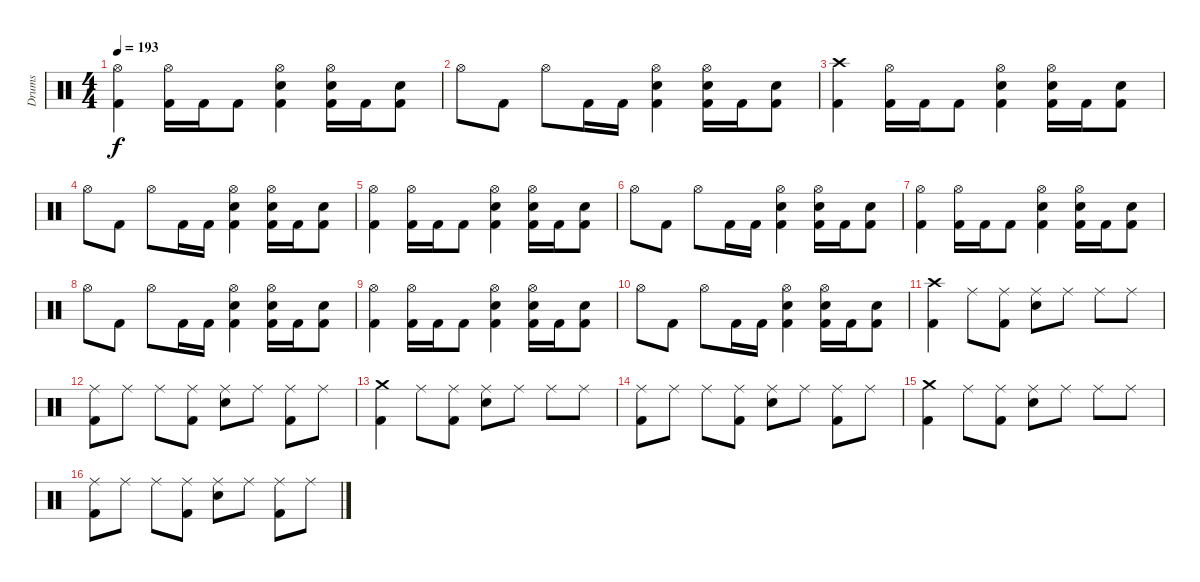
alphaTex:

\track ("Drums" "Drums") {instrument percussion}
\staff {score}
\articulation defaults
\ts (4 4)
\tempo 193
\clef neutral
\ks c
("Hi-Hat (open)" "Kick (hit) 2").4{dy f} ("Hi-Hat (open)" "Kick (hit) 2").16 "Kick (hit) 2".16 "Kick (hit) 2".8 ("Hi-Hat (open)" "Electric Snare (hit)" "Kick (hit) 2").4 ("Hi-Hat (open)" "Electric Snare (hit)" "Kick (hit) 2").16 "Kick (hit) 2".16 ("Electric Snare (hit)" "Kick (hit) 2").8 |
"Hi-Hat (open)".8 "Kick (hit) 2".8 "Hi-Hat (open)".8 "Kick (hit) 2".16 "Kick (hit) 2".16 ("Hi-Hat (open)" "Electric Snare (hit)" "Kick (hit) 2").4 ("Hi-Hat (open)" "Electric Snare (hit)" "Kick (hit) 2").16 "Kick (hit) 2".16 ("Electric Snare (hit)" "Kick (hit) 2").8 |
("Crash high (hit)" "Kick (hit) 2").4 ("Hi-Hat (open)" "Kick (hit) 2").16 "Kick (hit) 2".16 "Kick (hit) 2".8 ("Hi-Hat (open)" "Electric Snare (hit)" "Kick (hit) 2").4 ("Hi-Hat (open)" "Electric Snare (hit)" "Kick (hit) 2").16 "Kick (hit) 2".16 ("Electric Snare (hit)" "Kick (hit) 2").8 |
"Hi-Hat (open)".8 "Kick (hit) 2".8 "Hi-Hat (open)".8 "Kick (hit) 2".16 "Kick (hit) 2".16 ("Hi-Hat (open)" "Electric Snare (hit)" "Kick (hit) 2").4 ("Hi-Hat (open)" "Electric Snare (hit)" "Kick (hit) 2").16 "Kick (hit) 2".16 ("Electric Snare (hit)" "Kick (hit) 2").8 |
("Hi-Hat (open)" "Kick (hit) 2").4 ("Hi-Hat (open)" "Kick (hit) 2").16 "Kick (hit) 2".16 "Kick (hit) 2".8 ("Hi-Hat (open)" "Electric Snare (hit)" "Kick (hit) 2").4 ("Hi-Hat (open)" "Electric Snare (hit)" "Kick (hit) 2").16 "Kick (hit) 2".16 ("Electric Snare (hit)" "Kick (hit) 2").8 |
"Hi-Hat (open)".8 "Kick (hit) 2".8 "Hi-Hat (open)".8 "Kick (hit) 2".16 "Kick (hit) 2".16 ("Hi-Hat (open)" "Electric Snare (hit)" "Kick (hit) 2").4 ("Hi-Hat (open)" "Electric Snare (hit)" "Kick (hit) 2").16 "Kick (hit) 2".16 ("Electric Snare (hit)" "Kick (hit) 2").8 |
("Hi-Hat (open)" "Kick (hit) 2").4 ("Hi-Hat (open)" "Kick (hit) 2").16 "Kick (hit) 2".16 "Kick (hit) 2".8 ("Hi-Hat (open)" "Electric Snare (hit)" "Kick (hit) 2").4 ("Hi-Hat (open)" "Electric Snare (hit)" "Kick (hit) 2").16 "Kick (hit) 2".16 ("Electric Snare (hit)" "Kick (hit) 2").8 |
"Hi-Hat (open)".8 "Kick (hit) 2".8 "Hi-Hat (open)".8 "Kick (hit) 2".16 "Kick (hit) 2".16 ("Hi-Hat (open)" "Electric Snare (hit)" "Kick (hit) 2").4 ("Hi-Hat (open)" "Electric Snare (hit)" "Kick (hit) 2").16 "Kick (hit) 2".16 ("Electric Snare (hit)" "Kick (hit) 2").8 |
("Hi-Hat (open)" "Kick (hit) 2").4 ("Hi-Hat (open)" "Kick (hit) 2").16 "Kick (hit) 2".16 "Kick (hit) 2".8 ("Hi-Hat (open)" "Electric Snare (hit)" "Kick (hit) 2").4 ("Hi-Hat (open)" "Electric Snare (hit)" "Kick (hit) 2").16 "Kick (hit) 2".16 ("Electric Snare (hit)" "Kick (hit) 2").8 |
"Hi-Hat (open)".8 "Kick (hit) 2".8 "Hi-Hat (open)".8 "Kick (hit) 2".16 "Kick (hit) 2".16 ("Hi-Hat (open)" "Electric Snare (hit)" "Kick (hit) 2").4 ("Hi-Hat (open)" "Electric Snare (hit)" "Kick (hit) 2").16 "Kick (hit) 2".16 ("Electric Snare (hit)" "Kick (hit) 2").8 |
("Crash high (hit)" "Kick (hit) 2").4 "Ride (middle)".8 ("Ride (middle)" "Kick (hit) 2").8 ("Ride (middle)" "Electric Snare (hit)").8 "Ride (middle)".8 "Ride (middle)".8 "Ride (middle)".8 |
("Ride (middle)" "Kick (hit) 2").8 "Ride (middle)".8 "Ride (middle)".8 ("Ride (middle)" "Kick (hit) 2").8 ("Ride (middle)" "Electric Snare (hit)").8 "Ride (middle)".8 ("Ride (middle)" "Kick (hit) 2").8 "Ride (middle)".8 |
("Crash medium (hit)" "Kick (hit) 2").4 "Ride (middle)".8 ("Ride (middle)" "Kick (hit) 2").8 ("Ride (middle)" "Electric Snare (hit)").8 "Ride (middle)".8 "Ride (middle)".8 "Ride (middle)".8 |
("Ride (middle)" "Kick (hit) 2").8 "Ride (middle)".8 "Ride (middle)".8 ("Ride (middle)" "Kick (hit) 2").8 ("Ride (middle)" "Electric Snare (hit)").8 "Ride (middle)".8 ("Ride (middle)" "Kick (hit) 2").8 "Ride (middle)".8 |
("Crash medium (hit)" "Kick (hit) 2").4 "Ride (middle)".8 ("Ride (middle)" "Kick (hit) 2").8 ("Ride (middle)" "Electric Snare (hit)").8 "Ride (middle)".8 "Ride (middle)".8 "Ride (middle)".8 |
("Ride (middle)" "Kick (hit) 2").8 "Ride (middle)".8 "Ride (middle)".8 ("Ride (middle)" "Kick (hit) 2").8 ("Ride (middle)" "Electric Snare (hit)").8 "Ride (middle)".8 ("Ride (middle)" "Kick (hit) 2").8 "Ride (middle)".8
